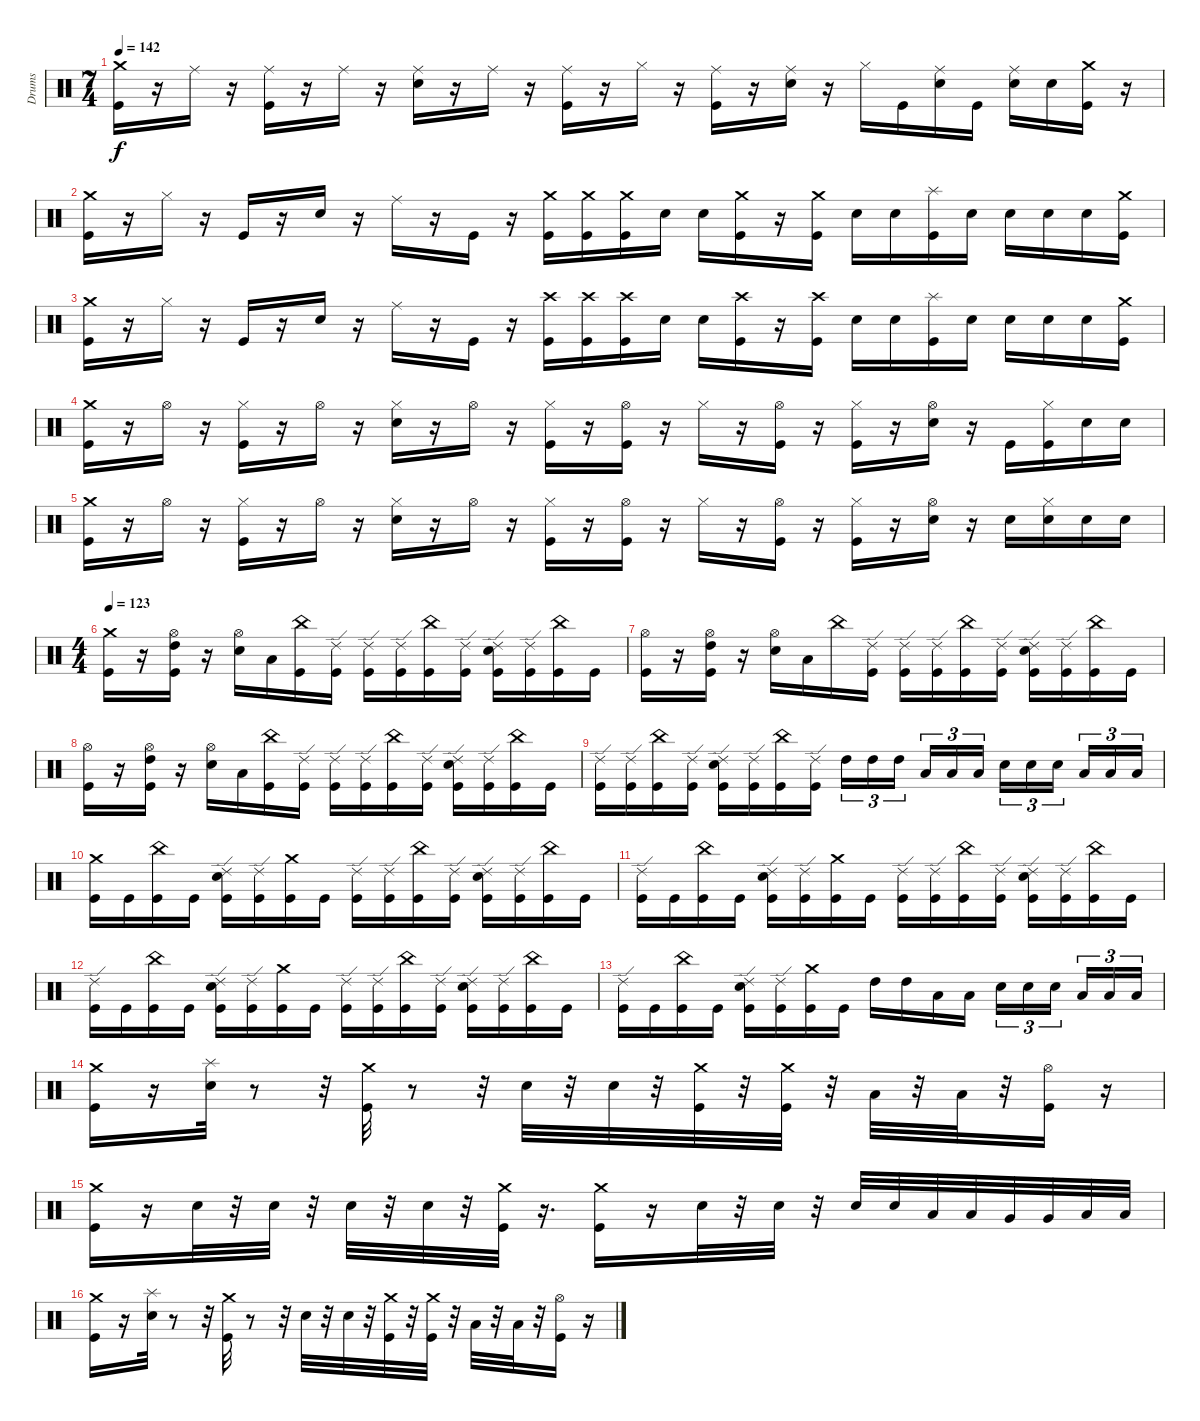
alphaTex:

\track ("Drums" "Drums") {instrument percussion}
\staff {score}
\articulation defaults
\ts (7 4)
\tempo 142
\clef neutral
\ks c
("Crash medium (hit)" "Kick (hit)").16{dy f} r.16 "Ride (middle)".16 r.16 ("Ride (middle)" "Kick (hit)").16 r.16 "Ride (middle)".16 r.16 ("Ride (middle)" "Electric Snare (hit)").16 r.16 "Ride (middle)".16 r.16 ("Ride (middle)" "Kick (hit)").16 r.16 "Hi-Hat (closed)".16 r.16 ("Ride (middle)" "Kick (hit)").16 r.16 ("Ride (middle)" "Electric Snare (hit)").16 r.16 "Hi-Hat (closed)".16 "Kick (hit)".16 ("Ride (middle)" "Electric Snare (hit)").16 "Kick (hit)".16 ("Ride (middle)" "Electric Snare (hit)").16 "Electric Snare (hit)".16 ("Crash medium (hit)" "Kick (hit)").16 r.16 |
("Crash medium (hit)" "Kick (hit)").16 r.16 "Hi-Hat (closed)".16 r.16 "Kick (hit)".16 r.16 "Electric Snare (hit)".16 r.16 "Ride (middle)".16 r.16 "Kick (hit)".16 r.16 ("Crash medium (hit)" "Kick (hit)").16 ("Crash medium (hit)" "Kick (hit)").16 ("Crash medium (hit)" "Kick (hit)").16 "Electric Snare (hit)".16 "Electric Snare (hit)".16 ("Crash medium (hit)" "Kick (hit)").16 r.16 ("Crash medium (hit)" "Kick (hit)").16 "Electric Snare (hit)".16 "Electric Snare (hit)".16 ("Splash (hit)" "Kick (hit)").16 "Electric Snare (hit)".16 "Electric Snare (hit)".16 "Electric Snare (hit)".16 "Electric Snare (hit)".16 ("Crash medium (hit)" "Kick (hit)").16 |
("Crash medium (hit)" "Kick (hit)").16 r.16 "Hi-Hat (closed)".16 r.16 "Kick (hit)".16 r.16 "Electric Snare (hit)".16 r.16 "Ride (middle)".16 r.16 "Kick (hit)".16 r.16 ("Crash high (hit)" "Kick (hit)").16 ("Crash high (hit)" "Kick (hit)").16 ("Crash high (hit)" "Kick (hit)").16 "Electric Snare (hit)".16 "Electric Snare (hit)".16 ("Crash high (hit)" "Kick (hit)").16 r.16 ("Crash high (hit)" "Kick (hit)").16 "Electric Snare (hit)".16 "Electric Snare (hit)".16 ("Splash (hit)" "Kick (hit)").16 "Electric Snare (hit)".16 "Electric Snare (hit)".16 "Electric Snare (hit)".16 "Electric Snare (hit)".16 ("Crash medium (hit)" "Kick (hit)").16 |
("Crash medium (hit)" "Kick (hit)").16 r.16 "Hi-Hat (open)".16 r.16 ("Hi-Hat (closed)" "Kick (hit)").16 r.16 "Hi-Hat (open)".16 r.16 ("Hi-Hat (closed)" "Electric Snare (hit)").16 r.16 "Hi-Hat (open)".16 r.16 ("Hi-Hat (closed)" "Kick (hit)").16 r.16 ("Hi-Hat (open)" "Kick (hit)").16 r.16 "Hi-Hat (closed)".16 r.16 ("Hi-Hat (open)" "Kick (hit)").16 r.16 ("Hi-Hat (closed)" "Kick (hit)").16 r.16 ("Hi-Hat (open)" "Electric Snare (hit)").16 r.16 "Kick (hit)".16 ("Hi-Hat (closed)" "Kick (hit)").16 "Electric Snare (hit)".16 "Electric Snare (hit)".16 |
("Crash medium (hit)" "Kick (hit)").16 r.16 "Hi-Hat (open)".16 r.16 ("Hi-Hat (closed)" "Kick (hit)").16 r.16 "Hi-Hat (open)".16 r.16 ("Hi-Hat (closed)" "Electric Snare (hit)").16 r.16 "Hi-Hat (open)".16 r.16 ("Hi-Hat (closed)" "Kick (hit)").16 r.16 ("Hi-Hat (open)" "Kick (hit)").16 r.16 "Hi-Hat (closed)".16 r.16 ("Hi-Hat (open)" "Kick (hit)").16 r.16 ("Hi-Hat (closed)" "Kick (hit)").16 r.16 ("Hi-Hat (open)" "Electric Snare (hit)").16 r.16 "Electric Snare (hit)".16 ("Hi-Hat (closed)" "Electric Snare (hit)").16 "Electric Snare (hit)".16 "Electric Snare (hit)".16 |
\ts (4 4)
\tempo 123
("Kick (hit)" "Crash medium (hit)").16 r.16 ("Hi-Hat (open)" "High Tom (hit)" "Kick (hit)").16 r.16 ("Hi-Hat (open)" "Electric Snare (hit)").16 "Low Tom (hit)".16 ("China (hit)" "Kick (hit)").16 ("Ride (edge) 2" "Kick (hit)").16 ("Ride (edge) 2" "Kick (hit)").16 ("Ride (edge) 2" "Kick (hit)").16 ("China (hit)" "Kick (hit)").16 ("Ride (edge) 2" "Kick (hit)").16 ("Ride (edge) 2" "Electric Snare (hit)" "Kick (hit)").16 ("Ride (edge) 2" "Kick (hit)").16 ("China (hit)" "Kick (hit)").16 "Kick (hit)".16 |
("Hi-Hat (open)" "Kick (hit)").16 r.16 ("Hi-Hat (open)" "High Tom (hit)" "Kick (hit)").16 r.16 ("Hi-Hat (open)" "Electric Snare (hit)").16 "Low Tom (hit)".16 "China (hit)".16 ("Ride (edge) 2" "Kick (hit)").16 ("Ride (edge) 2" "Kick (hit)").16 ("Ride (edge) 2" "Kick (hit)").16 ("China (hit)" "Kick (hit)").16 ("Ride (edge) 2" "Kick (hit)").16 ("Ride (edge) 2" "Electric Snare (hit)" "Kick (hit)").16 ("Ride (edge) 2" "Kick (hit)").16 ("China (hit)" "Kick (hit)").16 "Kick (hit)".16 |
("Kick (hit)" "Hi-Hat (open)").16 r.16 ("High Tom (hit)" "Kick (hit)" "Hi-Hat (open)").16 r.16 ("Electric Snare (hit)" "Hi-Hat (open)").16 "Low Tom (hit)".16 ("China (hit)" "Kick (hit)").16 ("Ride (edge) 2" "Kick (hit)").16 ("Ride (edge) 2" "Kick (hit)").16 ("Ride (edge) 2" "Kick (hit)").16 ("China (hit)" "Kick (hit)").16 ("Ride (edge) 2" "Kick (hit)").16 ("Ride (edge) 2" "Electric Snare (hit)" "Kick (hit)").16 ("Ride (edge) 2" "Kick (hit)").16 ("China (hit)" "Kick (hit)").16 "Kick (hit)".16 |
("Ride (edge) 2" "Kick (hit)").16 ("Ride (edge) 2" "Kick (hit)").16 ("China (hit)" "Kick (hit)").16 ("Ride (edge) 2" "Kick (hit)").16 ("Ride (edge) 2" "Electric Snare (hit)" "Kick (hit)").16 ("Ride (edge) 2" "Kick (hit)").16 ("China (hit)" "Kick (hit)").16 ("Ride (edge) 2" "Kick (hit)").16 "High Tom (hit)".16{tu (3 2)} "High Tom (hit)".16{tu (3 2)} "High Tom (hit)".16{tu (3 2)} "Low Tom (hit)".16{tu (3 2)} "Low Tom (hit)".16{tu (3 2)} "Low Tom (hit)".16{tu (3 2)} "Electric Snare (hit)".16{tu (3 2)} "Electric Snare (hit)".16{tu (3 2)} "Electric Snare (hit)".16{tu (3 2)} "Low Tom (hit)".16{tu (3 2)} "Low Tom (hit)".16{tu (3 2)} "Low Tom (hit)".16{tu (3 2)} |
("Crash medium (hit)" "Kick (hit)").16 "Kick (hit)".16 ("China (hit)" "Kick (hit)").16 "Kick (hit)".16 ("Ride (edge) 2" "Electric Snare (hit)" "Kick (hit)").16 ("Ride (edge) 2" "Kick (hit)").16 ("Crash medium (hit)" "Kick (hit)").16 "Kick (hit)".16 ("Ride (edge) 2" "Kick (hit)").16 ("Ride (edge) 2" "Kick (hit)").16 ("China (hit)" "Kick (hit)").16 ("Ride (edge) 2" "Kick (hit)").16 ("Ride (edge) 2" "Electric Snare (hit)" "Kick (hit)").16 ("Ride (edge) 2" "Kick (hit)").16 ("China (hit)" "Kick (hit)").16 "Kick (hit)".16 |
("Ride (edge) 2" "Kick (hit)").16 "Kick (hit)".16 ("China (hit)" "Kick (hit)").16 "Kick (hit)".16 ("Ride (edge) 2" "Electric Snare (hit)" "Kick (hit)").16 ("Ride (edge) 2" "Kick (hit)").16 ("Crash medium (hit)" "Kick (hit)").16 "Kick (hit)".16 ("Ride (edge) 2" "Kick (hit)").16 ("Ride (edge) 2" "Kick (hit)").16 ("China (hit)" "Kick (hit)").16 ("Ride (edge) 2" "Kick (hit)").16 ("Ride (edge) 2" "Electric Snare (hit)" "Kick (hit)").16 ("Ride (edge) 2" "Kick (hit)").16 ("China (hit)" "Kick (hit)").16 "Kick (hit)".16 |
("Ride (edge) 2" "Kick (hit)").16 "Kick (hit)".16 ("China (hit)" "Kick (hit)").16 "Kick (hit)".16 ("Ride (edge) 2" "Electric Snare (hit)" "Kick (hit)").16 ("Ride (edge) 2" "Kick (hit)").16 ("Crash medium (hit)" "Kick (hit)").16 "Kick (hit)".16 ("Ride (edge) 2" "Kick (hit)").16 ("Ride (edge) 2" "Kick (hit)").16 ("China (hit)" "Kick (hit)").16 ("Ride (edge) 2" "Kick (hit)").16 ("Ride (edge) 2" "Electric Snare (hit)" "Kick (hit)").16 ("Ride (edge) 2" "Kick (hit)").16 ("China (hit)" "Kick (hit)").16 "Kick (hit)".16 |
("Ride (edge) 2" "Kick (hit)").16 "Kick (hit)".16 ("China (hit)" "Kick (hit)").16 "Kick (hit)".16 ("Ride (edge) 2" "Electric Snare (hit)" "Kick (hit)").16 ("Ride (edge) 2" "Kick (hit)").16 ("Crash medium (hit)" "Kick (hit)").16 "Kick (hit)".16 "High Tom (hit)".16 "High Tom (hit)".16 "Low Tom (hit)".16 "Low Tom (hit)".16 "Electric Snare (hit)".16{tu (3 2)} "Electric Snare (hit)".16{tu (3 2)} "Electric Snare (hit)".16{tu (3 2)} "Low Tom (hit)".16{tu (3 2)} "Low Tom (hit)".16{tu (3 2)} "Low Tom (hit)".16{tu (3 2)} |
("Crash medium (hit)" "Kick (hit)").16 r.16 ("Splash (hit)" "Electric Snare (hit)").32 r.8 r.32 ("Crash medium (hit)" "Kick (hit)").32 r.8 r.32 "Electric Snare (hit)".32 r.32 "Electric Snare (hit)".32 r.32 ("Crash medium (hit)" "Kick (hit)").32 r.32 ("Crash medium (hit)" "Kick (hit)").32 r.32 "Low Tom (hit)".32 r.32 "Low Tom (hit)".32 r.32 ("Kick (hit)" "Hi-Hat (open)").16 r.16 |
("Kick (hit)" "Crash medium (hit)").16 r.16 "Electric Snare (hit)".32 r.32 "Electric Snare (hit)".32 r.32 "Electric Snare (hit)".32 r.32 "Electric Snare (hit)".32 r.32 ("Crash medium (hit)" "Kick (hit)").32 r.16{d} ("Crash medium (hit)" "Kick (hit)").16 r.16 "Electric Snare (hit)".32 r.32 "Electric Snare (hit)".32 r.32 "Electric Snare (hit)".32 "Electric Snare (hit)".32 "Low Tom (hit)".32 "Low Tom (hit)".32 "Very Low Tom (hit)".32 "Very Low Tom (hit)".32 "Low Floor Tom (hit)".32 "Low Floor Tom (hit)".32 |
("Crash medium (hit)" "Kick (hit)").16 r.16 ("Splash (hit)" "Electric Snare (hit)").32 r.8 r.32 ("Crash medium (hit)" "Kick (hit)").32 r.8 r.32 "Electric Snare (hit)".32 r.32 "Electric Snare (hit)".32 r.32 ("Crash medium (hit)" "Kick (hit)").32 r.32 ("Crash medium (hit)" "Kick (hit)").32 r.32 "Low Tom (hit)".32 r.32 "Low Tom (hit)".32 r.32 ("Kick (hit)" "Hi-Hat (open)").16 r.16
